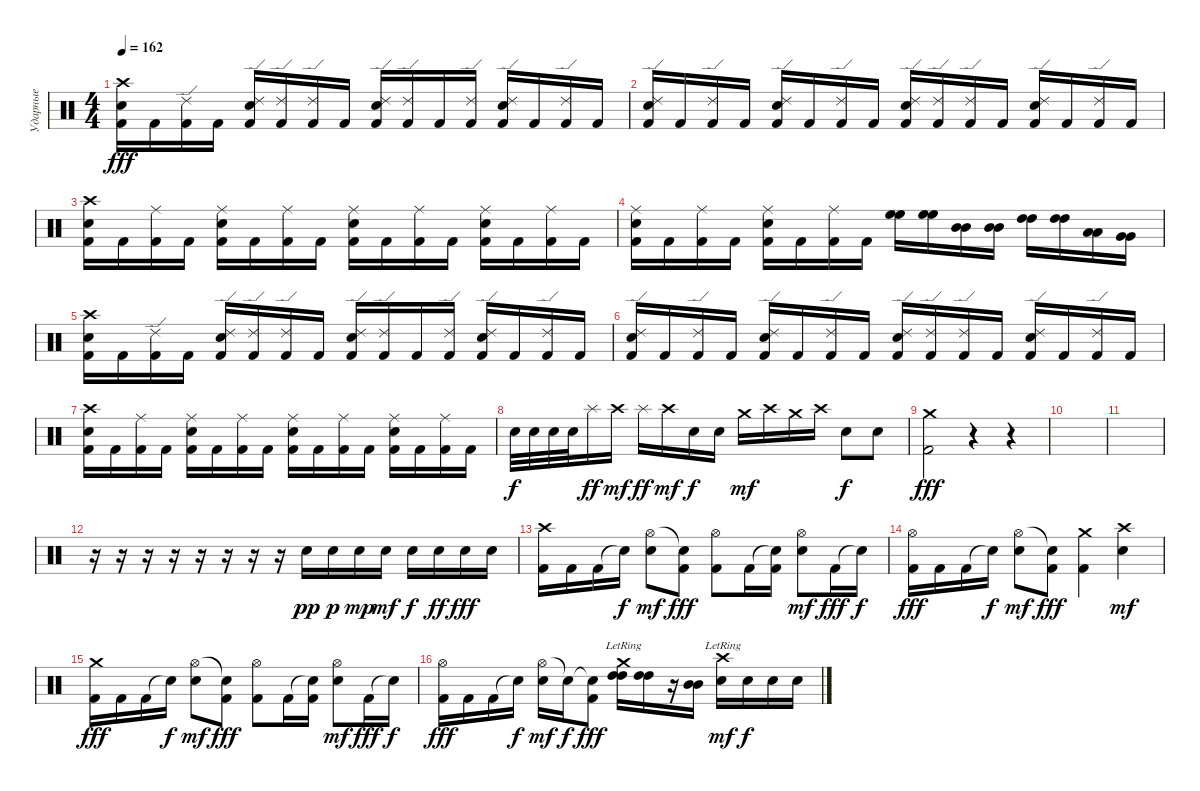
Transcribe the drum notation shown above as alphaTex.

\track ("Ударные" "Ударные") {instrument percussion}
\staff {score}
\articulation defaults
\ts (4 4)
\tempo 162
\clef neutral
\ks c
("Crash high (hit)" "Electric Snare (hit)" "Kick (hit) 2").16{dy fff} "Kick (hit) 2".16 ("Ride (edge) 2" "Kick (hit) 2").16 "Kick (hit) 2".16 ("Ride (edge) 2" "Electric Snare (hit)" "Kick (hit) 2").16 ("Ride (edge) 2" "Kick (hit) 2").16 ("Ride (edge) 2" "Kick (hit) 2").16 "Kick (hit) 2".16 ("Ride (edge) 2" "Electric Snare (hit)" "Kick (hit) 2").16 ("Ride (edge) 2" "Kick (hit) 2").16 "Kick (hit) 2".16 ("Ride (edge) 2" "Kick (hit) 2").16 ("Ride (edge) 2" "Electric Snare (hit)" "Kick (hit) 2").16 "Kick (hit) 2".16 ("Ride (edge) 2" "Kick (hit) 2").16 "Kick (hit) 2".16 |
("Ride (edge) 2" "Electric Snare (hit)" "Kick (hit) 2").16 "Kick (hit) 2".16 ("Ride (edge) 2" "Kick (hit) 2").16 "Kick (hit) 2".16 ("Ride (edge) 2" "Electric Snare (hit)" "Kick (hit) 2").16 "Kick (hit) 2".16 ("Ride (edge) 2" "Kick (hit) 2").16 "Kick (hit) 2".16 ("Ride (edge) 2" "Electric Snare (hit)" "Kick (hit) 2").16 ("Ride (edge) 2" "Kick (hit) 2").16 ("Ride (edge) 2" "Kick (hit) 2").16 "Kick (hit) 2".16 ("Ride (edge) 2" "Electric Snare (hit)" "Kick (hit) 2").16 "Kick (hit) 2".16 ("Ride (edge) 2" "Kick (hit) 2").16 "Kick (hit) 2".16 |
("Crash high (hit)" "Electric Snare (hit)" "Kick (hit) 2").16 "Kick (hit) 2".16 ("Ride (middle)" "Kick (hit) 2").16 "Kick (hit) 2".16 ("Ride (middle)" "Electric Snare (hit)" "Kick (hit) 2").16 "Kick (hit) 2".16 ("Ride (middle)" "Kick (hit) 2").16 "Kick (hit) 2".16 ("Ride (middle)" "Electric Snare (hit)" "Kick (hit) 2").16 "Kick (hit) 2".16 ("Ride (middle)" "Kick (hit) 2").16 "Kick (hit) 2".16 ("Ride (middle)" "Electric Snare (hit)" "Kick (hit) 2").16 "Kick (hit) 2".16 ("Ride (middle)" "Kick (hit) 2").16 "Kick (hit) 2".16 |
("Ride (middle)" "Electric Snare (hit)" "Kick (hit) 2").16 "Kick (hit) 2".16 ("Ride (middle)" "Kick (hit) 2").16 "Kick (hit) 2".16 ("Ride (middle)" "Electric Snare (hit)" "Kick (hit) 2").16 "Kick (hit) 2".16 ("Ride (middle)" "Kick (hit) 2").16 "Kick (hit) 2".16 ("High Floor Tom (hit)" "High Floor Tom (hit)").16 ("High Floor Tom (hit)" "High Floor Tom (hit)").16 ("Mid Tom (hit)" "Mid Tom (hit)").16 ("Mid Tom (hit)" "Mid Tom (hit)").16 ("High Tom (hit)" "High Tom (hit)").16 ("High Tom (hit)" "High Tom (hit)").16 ("Low Tom (hit)" "Low Tom (hit)").16 ("Very Low Tom (hit)" "Very Low Tom (hit)").16 |
("Crash high (hit)" "Electric Snare (hit)" "Kick (hit) 2").16 "Kick (hit) 2".16 ("Ride (edge) 2" "Kick (hit) 2").16 "Kick (hit) 2".16 ("Ride (edge) 2" "Electric Snare (hit)" "Kick (hit) 2").16 ("Ride (edge) 2" "Kick (hit) 2").16 ("Ride (edge) 2" "Kick (hit) 2").16 "Kick (hit) 2".16 ("Ride (edge) 2" "Electric Snare (hit)" "Kick (hit) 2").16 ("Ride (edge) 2" "Kick (hit) 2").16 "Kick (hit) 2".16 ("Ride (edge) 2" "Kick (hit) 2").16 ("Ride (edge) 2" "Electric Snare (hit)" "Kick (hit) 2").16 "Kick (hit) 2".16 ("Ride (edge) 2" "Kick (hit) 2").16 "Kick (hit) 2".16 |
("Ride (edge) 2" "Electric Snare (hit)" "Kick (hit) 2").16 "Kick (hit) 2".16 ("Ride (edge) 2" "Kick (hit) 2").16 "Kick (hit) 2".16 ("Ride (edge) 2" "Electric Snare (hit)" "Kick (hit) 2").16 "Kick (hit) 2".16 ("Ride (edge) 2" "Kick (hit) 2").16 "Kick (hit) 2".16 ("Ride (edge) 2" "Electric Snare (hit)" "Kick (hit) 2").16 ("Ride (edge) 2" "Kick (hit) 2").16 ("Ride (edge) 2" "Kick (hit) 2").16 "Kick (hit) 2".16 ("Ride (edge) 2" "Electric Snare (hit)" "Kick (hit) 2").16 "Kick (hit) 2".16 ("Ride (edge) 2" "Kick (hit) 2").16 "Kick (hit) 2".16 |
("Crash high (hit)" "Electric Snare (hit)" "Kick (hit) 2").16 "Kick (hit) 2".16 ("Ride (middle)" "Kick (hit) 2").16 "Kick (hit) 2".16 ("Ride (middle)" "Electric Snare (hit)" "Kick (hit) 2").16 "Kick (hit) 2".16 ("Ride (middle)" "Kick (hit) 2").16 "Kick (hit) 2".16 ("Ride (middle)" "Electric Snare (hit)" "Kick (hit) 2").16 "Kick (hit) 2".16 ("Ride (middle)" "Kick (hit) 2").16 "Kick (hit) 2".16 ("Ride (middle)" "Electric Snare (hit)" "Kick (hit) 2").16 "Kick (hit) 2".16 ("Ride (middle)" "Kick (hit) 2").16 "Kick (hit) 2".16 |
"Electric Snare (hit)".32{dy f} "Electric Snare (hit)".32 "Electric Snare (hit)".32 "Electric Snare (hit)".32 "Splash (hit)".16{dy ff} "Crash high (hit)".16{dy mf} "Splash (hit)".16{dy ff} "Crash high (hit)".16{dy mf} "Electric Snare (hit)".16{dy f} "Electric Snare (hit)".16 "Crash medium (hit)".16{dy mf} "Crash high (hit)".16 "Crash medium (hit)".16 "Crash high (hit)".16 "Electric Snare (hit)".8{dy f} "Electric Snare (hit)".8 |
("Crash medium (hit)" "Kick (hit) 2").2{dy fff} r.4 r.4 |
|
|
r.16 r.16 r.16 r.16 r.16 r.16 r.16 r.16 "Electric Snare (hit)".16{dy pp} "Electric Snare (hit)".16{dy p} "Electric Snare (hit)".16{dy mp} "Electric Snare (hit)".16{dy mf} "Electric Snare (hit)".16{dy f} "Electric Snare (hit)".16{dy ff} "Electric Snare (hit)".16{dy fff} "Electric Snare (hit)".16 |
("Crash high (hit)" "Kick (hit) 2").16 "Kick (hit) 2".16 "Kick (hit) 2".16 "Snare (hit)"{t}.16{dy f} ("Hi-Hat (open)" "Electric Snare (hit)").8{dy mf} ("Snare (hit)"{t} "Kick (hit) 2").8{dy fff} ("Hi-Hat (open)" "Kick (hit) 2").8 "Kick (hit) 2".16 ("Snare (hit)"{t} "Kick (hit) 2").16 ("Hi-Hat (open)" "Electric Snare (hit)").8{dy mf} "Kick (hit) 2".16{dy fff} "Snare (hit)"{t}.16{dy f} |
("Hi-Hat (open)" "Kick (hit) 2").16{dy fff} "Kick (hit) 2".16 "Kick (hit) 2".16 "Snare (hit)"{t}.16{dy f} ("Hi-Hat (open)" "Electric Snare (hit)").8{dy mf} ("Snare (hit)"{t} "Kick (hit) 2").8{dy fff} ("Crash medium (hit)" "Kick (hit) 2").4 ("Crash high (hit)" "Electric Snare (hit)").4{dy mf} |
("Crash medium (hit)" "Kick (hit) 2").16{dy fff} "Kick (hit) 2".16 "Kick (hit) 2".16 "Snare (hit)"{t}.16{dy f} ("Hi-Hat (open)" "Electric Snare (hit)").8{dy mf} ("Snare (hit)"{t} "Kick (hit) 2").8{dy fff} ("Hi-Hat (open)" "Kick (hit) 2").8 "Kick (hit) 2".16 ("Snare (hit)"{t} "Kick (hit) 2").16 ("Hi-Hat (open)" "Electric Snare (hit)").8{dy mf} "Kick (hit) 2".16{dy fff} "Snare (hit)"{t}.16{dy f} |
("Hi-Hat (open)" "Kick (hit) 2").16{dy fff} "Kick (hit) 2".16 "Kick (hit) 2".16 "Snare (hit)"{t}.16{dy f} ("Hi-Hat (open)" "Electric Snare (hit)").16{dy mf} "Snare (hit)"{t}.16{dy f} ("Snare (hit)"{t} "Kick (hit) 2").8{dy fff} ("Crash medium (hit)"{lr} "High Tom (hit)" "High Tom (hit)").16 ("High Tom (hit)" "High Tom (hit)").16 r.16 ("Mid Tom (hit)" "Mid Tom (hit)").16 ("Crash high (hit)"{lr} "Electric Snare (hit)").16{dy mf} "Electric Snare (hit)".16{dy f} "Electric Snare (hit)".16 "Electric Snare (hit)".16
